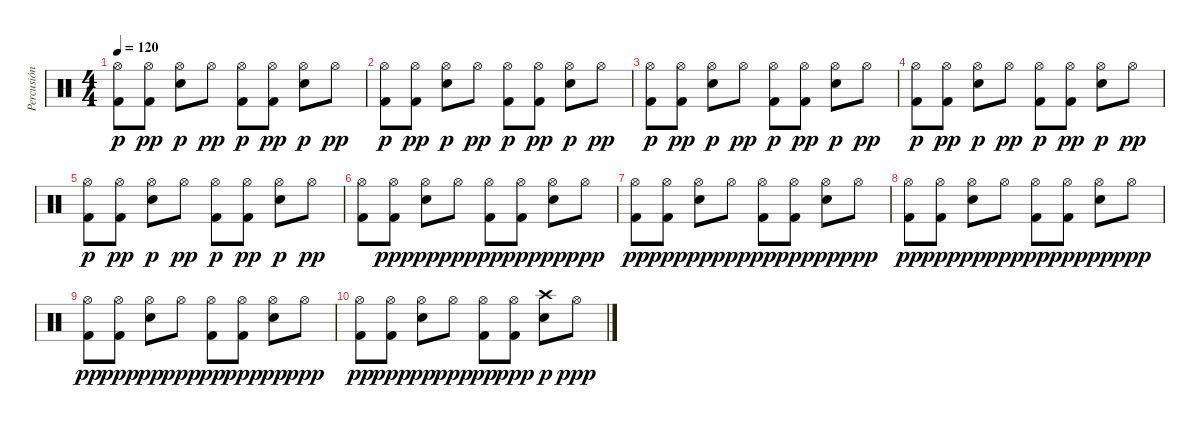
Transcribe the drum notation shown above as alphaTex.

\track ("Percusión" "Percusión") {instrument percussion}
\staff {score}
\articulation defaults
\ts (4 4)
\tempo 120
\clef neutral
\ks c
("Hi-Hat (open)" "Kick (hit) 2").8{dy p} ("Hi-Hat (open)" "Kick (hit) 2").8{dy pp} ("Electric Snare (hit)" "Hi-Hat (open)").8{dy p} "Hi-Hat (open)".8{dy pp} ("Hi-Hat (open)" "Kick (hit) 2").8{dy p} ("Hi-Hat (open)" "Kick (hit) 2").8{dy pp} ("Electric Snare (hit)" "Hi-Hat (open)").8{dy p} "Hi-Hat (open)".8{dy pp} |
("Hi-Hat (open)" "Kick (hit) 2").8{dy p} ("Hi-Hat (open)" "Kick (hit) 2").8{dy pp} ("Electric Snare (hit)" "Hi-Hat (open)").8{dy p} "Hi-Hat (open)".8{dy pp} ("Hi-Hat (open)" "Kick (hit) 2").8{dy p} ("Hi-Hat (open)" "Kick (hit) 2").8{dy pp} ("Electric Snare (hit)" "Hi-Hat (open)").8{dy p} "Hi-Hat (open)".8{dy pp} |
("Hi-Hat (open)" "Kick (hit) 2").8{dy p} ("Hi-Hat (open)" "Kick (hit) 2").8{dy pp} ("Electric Snare (hit)" "Hi-Hat (open)").8{dy p} "Hi-Hat (open)".8{dy pp} ("Hi-Hat (open)" "Kick (hit) 2").8{dy p} ("Hi-Hat (open)" "Kick (hit) 2").8{dy pp} ("Electric Snare (hit)" "Hi-Hat (open)").8{dy p} "Hi-Hat (open)".8{dy pp} |
("Hi-Hat (open)" "Kick (hit) 2").8{dy p} ("Hi-Hat (open)" "Kick (hit) 2").8{dy pp} ("Electric Snare (hit)" "Hi-Hat (open)").8{dy p} "Hi-Hat (open)".8{dy pp} ("Hi-Hat (open)" "Kick (hit) 2").8{dy p} ("Hi-Hat (open)" "Kick (hit) 2").8{dy pp} ("Electric Snare (hit)" "Hi-Hat (open)").8{dy p} "Hi-Hat (open)".8{dy pp} |
("Hi-Hat (open)" "Kick (hit) 2").8{dy p} ("Hi-Hat (open)" "Kick (hit) 2").8{dy pp} ("Electric Snare (hit)" "Hi-Hat (open)").8{dy p} "Hi-Hat (open)".8{dy pp} ("Hi-Hat (open)" "Kick (hit) 2").8{dy p} ("Hi-Hat (open)" "Kick (hit) 2").8{dy pp} ("Electric Snare (hit)" "Hi-Hat (open)").8{dy p} "Hi-Hat (open)".8{dy pp} |
("Hi-Hat (open)" "Kick (hit) 2").8 ("Hi-Hat (open)" "Kick (hit) 2").8{dy ppp} ("Electric Snare (hit)" "Hi-Hat (open)").8{dy pp} "Hi-Hat (open)".8{dy ppp} ("Hi-Hat (open)" "Kick (hit) 2").8{dy pp} ("Hi-Hat (open)" "Kick (hit) 2").8{dy ppp} ("Electric Snare (hit)" "Hi-Hat (open)").8{dy pp} "Hi-Hat (open)".8{dy ppp} |
("Hi-Hat (open)" "Kick (hit) 2").8{dy pp} ("Hi-Hat (open)" "Kick (hit) 2").8{dy ppp} ("Electric Snare (hit)" "Hi-Hat (open)").8{dy pp} "Hi-Hat (open)".8{dy ppp} ("Hi-Hat (open)" "Kick (hit) 2").8{dy pp} ("Hi-Hat (open)" "Kick (hit) 2").8{dy ppp} ("Electric Snare (hit)" "Hi-Hat (open)").8{dy pp} "Hi-Hat (open)".8{dy ppp} |
("Hi-Hat (open)" "Kick (hit) 2").8{dy pp} ("Hi-Hat (open)" "Kick (hit) 2").8{dy ppp} ("Electric Snare (hit)" "Hi-Hat (open)").8{dy pp} "Hi-Hat (open)".8{dy ppp} ("Hi-Hat (open)" "Kick (hit) 2").8{dy pp} ("Hi-Hat (open)" "Kick (hit) 2").8{dy ppp} ("Electric Snare (hit)" "Hi-Hat (open)").8{dy pp} "Hi-Hat (open)".8{dy ppp} |
("Hi-Hat (open)" "Kick (hit) 2").8{dy pp} ("Hi-Hat (open)" "Kick (hit) 2").8{dy ppp} ("Electric Snare (hit)" "Hi-Hat (open)").8{dy pp} "Hi-Hat (open)".8{dy ppp} ("Hi-Hat (open)" "Kick (hit) 2").8{dy pp} ("Hi-Hat (open)" "Kick (hit) 2").8{dy ppp} ("Electric Snare (hit)" "Hi-Hat (open)").8{dy pp} "Hi-Hat (open)".8{dy ppp} |
("Hi-Hat (open)" "Kick (hit) 2").8{dy pp} ("Hi-Hat (open)" "Kick (hit) 2").8{dy ppp} ("Electric Snare (hit)" "Hi-Hat (open)").8{dy pp} "Hi-Hat (open)".8{dy ppp} ("Hi-Hat (open)" "Kick (hit) 2").8{dy pp} ("Hi-Hat (open)" "Kick (hit) 2").8{dy ppp} ("Electric Snare (hit)" "Crash high (hit)").8{dy p} "Hi-Hat (open)".8{dy ppp}
